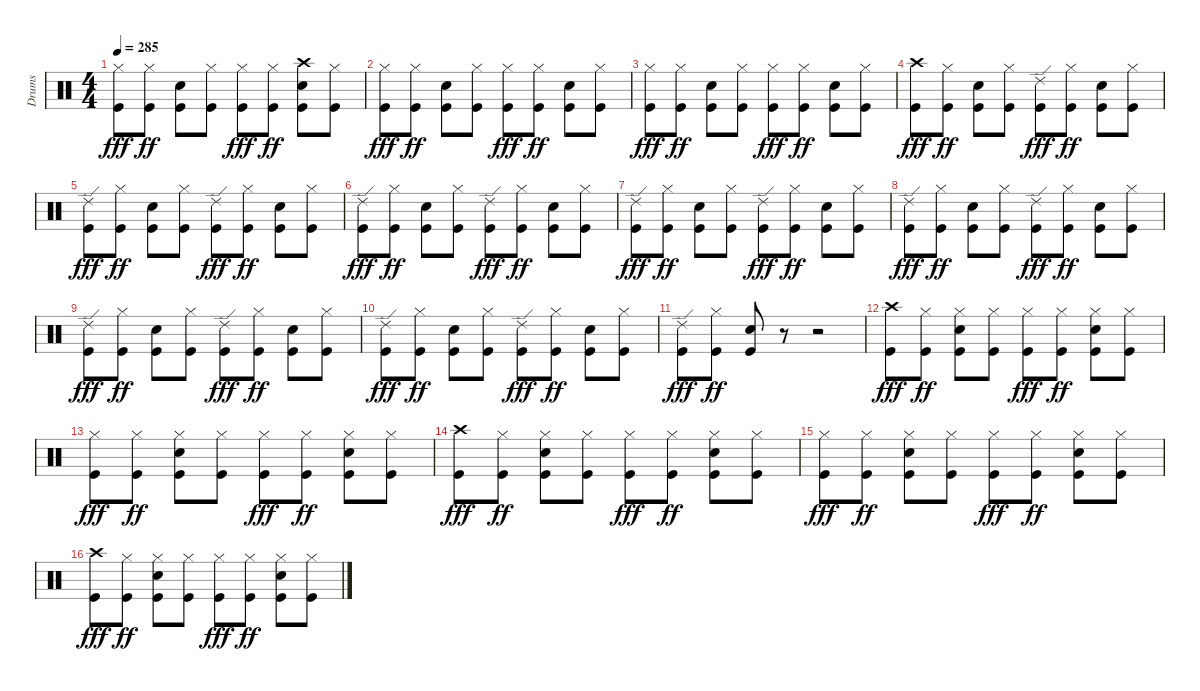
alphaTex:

\track ("Drums" "Drums") {instrument percussion}
\staff {score}
\articulation defaults
\ts (4 4)
\tempo 285
\clef neutral
\ks c
("Hi-Hat (closed)" "Kick (hit)").8{dy fff} ("Hi-Hat (closed)" "Kick (hit)").8{dy ff} ("Snare (hit) 2" "Kick (hit)").8 ("Hi-Hat (closed)" "Kick (hit)").8 ("Hi-Hat (closed)" "Kick (hit)").8{dy fff} ("Hi-Hat (closed)" "Kick (hit)").8{dy ff} ("Crash high (hit)" "Snare (hit) 2" "Kick (hit)").8 ("Hi-Hat (closed)" "Kick (hit)").8 |
("Hi-Hat (closed)" "Kick (hit)").8{dy fff} ("Hi-Hat (closed)" "Kick (hit)").8{dy ff} ("Snare (hit) 2" "Kick (hit)").8 ("Hi-Hat (closed)" "Kick (hit)").8 ("Hi-Hat (closed)" "Kick (hit)").8{dy fff} ("Hi-Hat (closed)" "Kick (hit)").8{dy ff} ("Snare (hit) 2" "Kick (hit)").8 ("Hi-Hat (closed)" "Kick (hit)").8 |
("Hi-Hat (closed)" "Kick (hit)").8{dy fff} ("Hi-Hat (closed)" "Kick (hit)").8{dy ff} ("Snare (hit) 2" "Kick (hit)").8 ("Hi-Hat (closed)" "Kick (hit)").8 ("Hi-Hat (closed)" "Kick (hit)").8{dy fff} ("Hi-Hat (closed)" "Kick (hit)").8{dy ff} ("Snare (hit) 2" "Kick (hit)").8 ("Hi-Hat (closed)" "Kick (hit)").8 |
("Crash high (hit)" "Kick (hit)").8{dy fff} ("Hi-Hat (closed)" "Kick (hit)").8{dy ff} ("Snare (hit) 2" "Kick (hit)").8 ("Hi-Hat (closed)" "Kick (hit)").8 ("Ride (edge) 2" "Kick (hit)").8{dy fff} ("Hi-Hat (closed)" "Kick (hit)").8{dy ff} ("Snare (hit) 2" "Kick (hit)").8 ("Hi-Hat (closed)" "Kick (hit)").8 |
("Ride (edge) 2" "Kick (hit)").8{dy fff} ("Hi-Hat (closed)" "Kick (hit)").8{dy ff} ("Snare (hit) 2" "Kick (hit)").8 ("Hi-Hat (closed)" "Kick (hit)").8 ("Ride (edge) 2" "Kick (hit)").8{dy fff} ("Hi-Hat (closed)" "Kick (hit)").8{dy ff} ("Snare (hit) 2" "Kick (hit)").8 ("Hi-Hat (closed)" "Kick (hit)").8 |
("Ride (edge) 2" "Kick (hit)").8{dy fff} ("Hi-Hat (closed)" "Kick (hit)").8{dy ff} ("Snare (hit) 2" "Kick (hit)").8 ("Hi-Hat (closed)" "Kick (hit)").8 ("Ride (edge) 2" "Kick (hit)").8{dy fff} ("Hi-Hat (closed)" "Kick (hit)").8{dy ff} ("Snare (hit) 2" "Kick (hit)").8 ("Hi-Hat (closed)" "Kick (hit)").8 |
("Ride (edge) 2" "Kick (hit)").8{dy fff} ("Hi-Hat (closed)" "Kick (hit)").8{dy ff} ("Snare (hit) 2" "Kick (hit)").8 ("Hi-Hat (closed)" "Kick (hit)").8 ("Ride (edge) 2" "Kick (hit)").8{dy fff} ("Hi-Hat (closed)" "Kick (hit)").8{dy ff} ("Snare (hit) 2" "Kick (hit)").8 ("Hi-Hat (closed)" "Kick (hit)").8 |
("Ride (edge) 2" "Kick (hit)").8{dy fff} ("Hi-Hat (closed)" "Kick (hit)").8{dy ff} ("Snare (hit) 2" "Kick (hit)").8 ("Hi-Hat (closed)" "Kick (hit)").8 ("Ride (edge) 2" "Kick (hit)").8{dy fff} ("Hi-Hat (closed)" "Kick (hit)").8{dy ff} ("Snare (hit) 2" "Kick (hit)").8 ("Hi-Hat (closed)" "Kick (hit)").8 |
("Ride (edge) 2" "Kick (hit)").8{dy fff} ("Hi-Hat (closed)" "Kick (hit)").8{dy ff} ("Snare (hit) 2" "Kick (hit)").8 ("Hi-Hat (closed)" "Kick (hit)").8 ("Ride (edge) 2" "Kick (hit)").8{dy fff} ("Hi-Hat (closed)" "Kick (hit)").8{dy ff} ("Snare (hit) 2" "Kick (hit)").8 ("Hi-Hat (closed)" "Kick (hit)").8 |
("Ride (edge) 2" "Kick (hit)").8{dy fff} ("Hi-Hat (closed)" "Kick (hit)").8{dy ff} ("Snare (hit) 2" "Kick (hit)").8 ("Hi-Hat (closed)" "Kick (hit)").8 ("Ride (edge) 2" "Kick (hit)").8{dy fff} ("Hi-Hat (closed)" "Kick (hit)").8{dy ff} ("Snare (hit) 2" "Kick (hit)").8 ("Hi-Hat (closed)" "Kick (hit)").8 |
("Ride (edge) 2" "Kick (hit)").8{dy fff} ("Hi-Hat (closed)" "Kick (hit)").8{dy ff} ("Snare (hit) 2" "Kick (hit)").8 r.8 r.2 |
("Crash high (hit)" "Kick (hit)").8{dy fff} ("Hi-Hat (closed)" "Kick (hit)").8{dy ff} ("Hi-Hat (closed)" "Snare (hit) 2" "Kick (hit)").8 ("Hi-Hat (closed)" "Kick (hit)").8 ("Hi-Hat (closed)" "Kick (hit)").8{dy fff} ("Hi-Hat (closed)" "Kick (hit)").8{dy ff} ("Hi-Hat (closed)" "Snare (hit) 2" "Kick (hit)").8 ("Hi-Hat (closed)" "Kick (hit)").8 |
("Hi-Hat (closed)" "Kick (hit)").8{dy fff} ("Hi-Hat (closed)" "Kick (hit)").8{dy ff} ("Hi-Hat (closed)" "Snare (hit) 2" "Kick (hit)").8 ("Hi-Hat (closed)" "Kick (hit)").8 ("Hi-Hat (closed)" "Kick (hit)").8{dy fff} ("Hi-Hat (closed)" "Kick (hit)").8{dy ff} ("Hi-Hat (closed)" "Snare (hit) 2" "Kick (hit)").8 ("Hi-Hat (closed)" "Kick (hit)").8 |
("Crash high (hit)" "Kick (hit)").8{dy fff} ("Hi-Hat (closed)" "Kick (hit)").8{dy ff} ("Hi-Hat (closed)" "Snare (hit) 2" "Kick (hit)").8 ("Hi-Hat (closed)" "Kick (hit)").8 ("Hi-Hat (closed)" "Kick (hit)").8{dy fff} ("Hi-Hat (closed)" "Kick (hit)").8{dy ff} ("Hi-Hat (closed)" "Snare (hit) 2" "Kick (hit)").8 ("Hi-Hat (closed)" "Kick (hit)").8 |
("Hi-Hat (closed)" "Kick (hit)").8{dy fff} ("Hi-Hat (closed)" "Kick (hit)").8{dy ff} ("Hi-Hat (closed)" "Snare (hit) 2" "Kick (hit)").8 ("Hi-Hat (closed)" "Kick (hit)").8 ("Hi-Hat (closed)" "Kick (hit)").8{dy fff} ("Hi-Hat (closed)" "Kick (hit)").8{dy ff} ("Hi-Hat (closed)" "Snare (hit) 2" "Kick (hit)").8 ("Hi-Hat (closed)" "Kick (hit)").8 |
("Crash high (hit)" "Kick (hit)").8{dy fff} ("Hi-Hat (closed)" "Kick (hit)").8{dy ff} ("Hi-Hat (closed)" "Snare (hit) 2" "Kick (hit)").8 ("Hi-Hat (closed)" "Kick (hit)").8 ("Hi-Hat (closed)" "Kick (hit)").8{dy fff} ("Hi-Hat (closed)" "Kick (hit)").8{dy ff} ("Hi-Hat (closed)" "Snare (hit) 2" "Kick (hit)").8 ("Hi-Hat (closed)" "Kick (hit)").8
